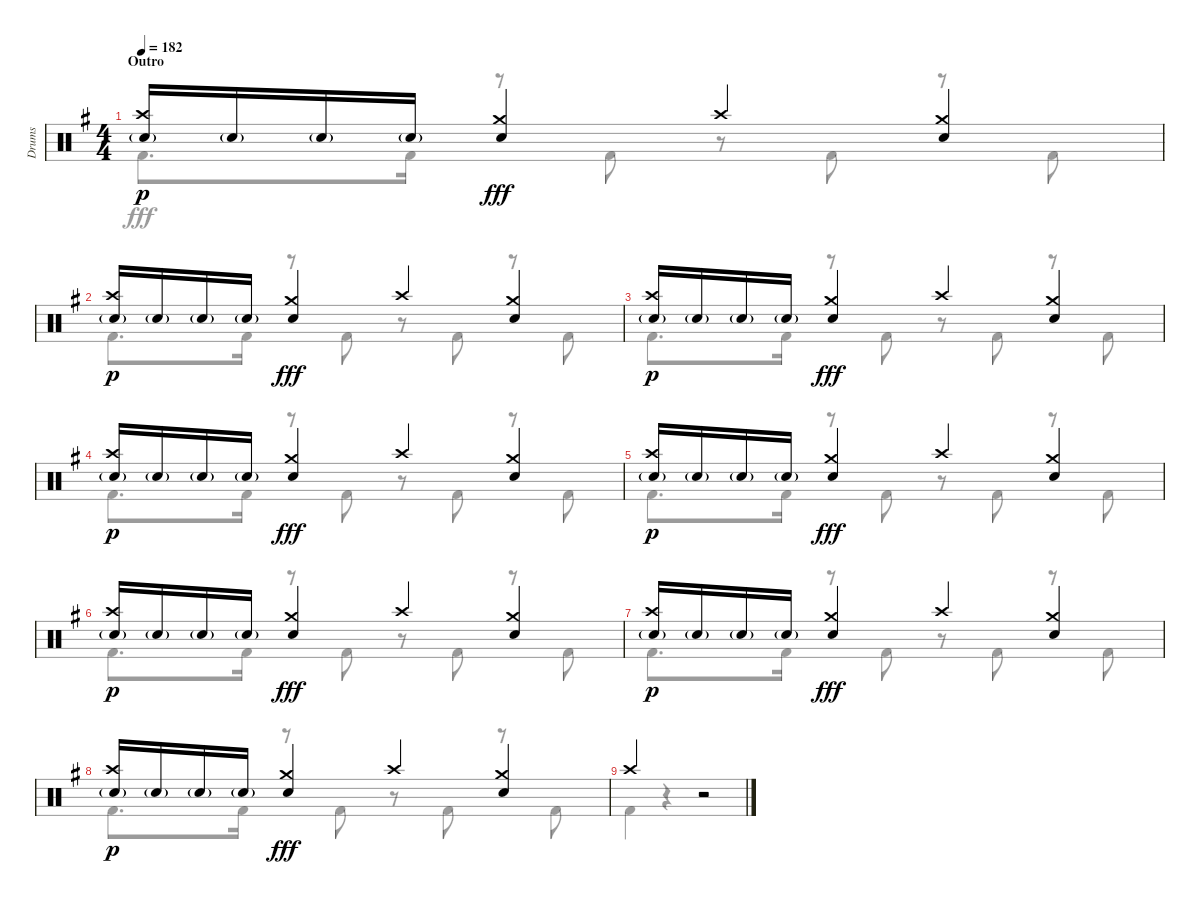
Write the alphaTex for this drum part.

\track ("Drums" "Drums") {instrument percussion}
\staff {score}
\articulation defaults
\voice
\ts (4 4)
\section ("" "Outro")
\tempo 182
\clef neutral
\ks g
("Crash high (hit)" "Snare (hit) 2"{g}).16{dy p} "Snare (hit) 2"{g}.16 "Snare (hit) 2"{g}.16 "Snare (hit) 2"{g}.16 ("Crash medium (hit)" "Snare (hit) 2").4{dy fff} "Crash high (hit)".4 ("Crash medium (hit)" "Snare (hit) 2").4 |
("Crash high (hit)" "Snare (hit) 2"{g}).16{dy p} "Snare (hit) 2"{g}.16 "Snare (hit) 2"{g}.16 "Snare (hit) 2"{g}.16 ("Crash medium (hit)" "Snare (hit) 2").4{dy fff} "Crash high (hit)".4 ("Crash medium (hit)" "Snare (hit) 2").4 |
("Crash high (hit)" "Snare (hit) 2"{g}).16{dy p} "Snare (hit) 2"{g}.16 "Snare (hit) 2"{g}.16 "Snare (hit) 2"{g}.16 ("Crash medium (hit)" "Snare (hit) 2").4{dy fff} "Crash high (hit)".4 ("Crash medium (hit)" "Snare (hit) 2").4 |
("Crash high (hit)" "Snare (hit) 2"{g}).16{dy p} "Snare (hit) 2"{g}.16 "Snare (hit) 2"{g}.16 "Snare (hit) 2"{g}.16 ("Crash medium (hit)" "Snare (hit) 2").4{dy fff} "Crash high (hit)".4 ("Crash medium (hit)" "Snare (hit) 2").4 |
("Crash high (hit)" "Snare (hit) 2"{g}).16{dy p} "Snare (hit) 2"{g}.16 "Snare (hit) 2"{g}.16 "Snare (hit) 2"{g}.16 ("Crash medium (hit)" "Snare (hit) 2").4{dy fff} "Crash high (hit)".4 ("Crash medium (hit)" "Snare (hit) 2").4 |
("Crash high (hit)" "Snare (hit) 2"{g}).16{dy p} "Snare (hit) 2"{g}.16 "Snare (hit) 2"{g}.16 "Snare (hit) 2"{g}.16 ("Crash medium (hit)" "Snare (hit) 2").4{dy fff} "Crash high (hit)".4 ("Crash medium (hit)" "Snare (hit) 2").4 |
("Crash high (hit)" "Snare (hit) 2"{g}).16{dy p} "Snare (hit) 2"{g}.16 "Snare (hit) 2"{g}.16 "Snare (hit) 2"{g}.16 ("Crash medium (hit)" "Snare (hit) 2").4{dy fff} "Crash high (hit)".4 ("Crash medium (hit)" "Snare (hit) 2").4 |
("Crash high (hit)" "Snare (hit) 2"{g}).16{dy p} "Snare (hit) 2"{g}.16 "Snare (hit) 2"{g}.16 "Snare (hit) 2"{g}.16 ("Crash medium (hit)" "Snare (hit) 2").4{dy fff} "Crash high (hit)".4 ("Crash medium (hit)" "Snare (hit) 2").4 |
"Crash high (hit)".2 r.2
\voice
\clef neutral
\ottava regular
\simile none
\ks g "Kick (hit) 2".8{d dy fff} "Kick (hit) 2".16
r.8 "Kick (hit) 2".8 r.8 "Kick (hit) 2".8 r.8 "Kick (hit) 2".8 |
"Kick (hit) 2".8{d} "Kick (hit) 2".16 r.8 "Kick (hit) 2".8 r.8 "Kick (hit) 2".8 r.8 "Kick (hit) 2".8 |
"Kick (hit) 2".8{d} "Kick (hit) 2".16 r.8 "Kick (hit) 2".8 r.8 "Kick (hit) 2".8 r.8 "Kick (hit) 2".8 |
"Kick (hit) 2".8{d} "Kick (hit) 2".16 r.8 "Kick (hit) 2".8 r.8 "Kick (hit) 2".8 r.8 "Kick (hit) 2".8 |
"Kick (hit) 2".8{d} "Kick (hit) 2".16 r.8 "Kick (hit) 2".8 r.8 "Kick (hit) 2".8 r.8 "Kick (hit) 2".8 |
"Kick (hit) 2".8{d} "Kick (hit) 2".16 r.8 "Kick (hit) 2".8 r.8 "Kick (hit) 2".8 r.8 "Kick (hit) 2".8 |
"Kick (hit) 2".8{d} "Kick (hit) 2".16 r.8 "Kick (hit) 2".8 r.8 "Kick (hit) 2".8 r.8 "Kick (hit) 2".8 |
"Kick (hit) 2".8{d} "Kick (hit) 2".16 r.8 "Kick (hit) 2".8 r.8 "Kick (hit) 2".8 r.8 "Kick (hit) 2".8 |
"Kick (hit) 2".4 r.4 r.2
